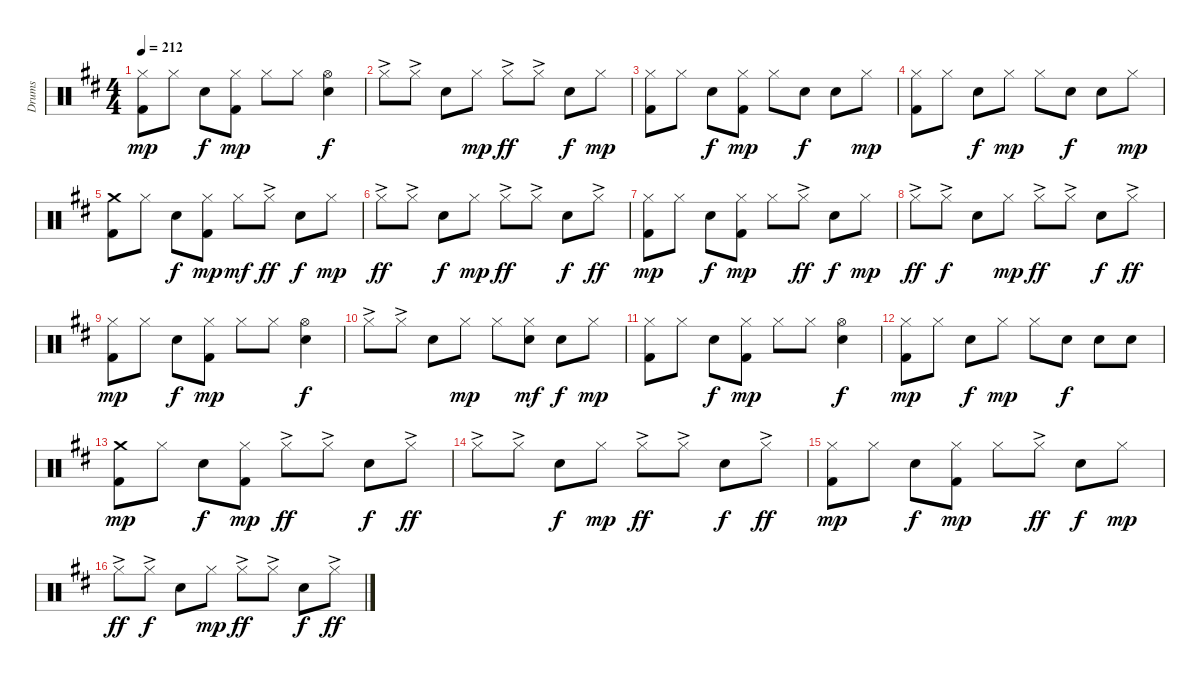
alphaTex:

\track ("Drums" "Drums") {instrument percussion}
\staff {score}
\articulation defaults
\ts (4 4)
\tempo 212
\clef neutral
\ks d
("Hi-Hat (closed)" "Kick (hit) 2").8{dy mp} "Hi-Hat (closed)".8 "Electric Snare (hit)".8{dy f} ("Hi-Hat (closed)" "Kick (hit) 2").8{dy mp} "Hi-Hat (closed)".8 "Hi-Hat (closed)".8 ("Hi-Hat (open)" "Electric Snare (hit)").4{dy f} |
"Hi-Hat (closed)"{ac}.8 "Hi-Hat (closed)"{ac}.8 "Electric Snare (hit)".8 "Hi-Hat (closed)".8{dy mp} "Hi-Hat (closed)"{ac}.8{dy ff} "Hi-Hat (closed)"{ac}.8 "Electric Snare (hit)".8{dy f} "Hi-Hat (closed)".8{dy mp} |
("Hi-Hat (closed)" "Kick (hit) 2").8 "Hi-Hat (closed)".8 "Electric Snare (hit)".8{dy f} ("Hi-Hat (closed)" "Kick (hit) 2").8{dy mp} "Hi-Hat (closed)".8 "Electric Snare (hit)".8{dy f} "Electric Snare (hit)".8 "Hi-Hat (closed)".8{dy mp} |
("Hi-Hat (closed)" "Kick (hit) 2").8 "Hi-Hat (closed)".8 "Electric Snare (hit)".8{dy f} "Hi-Hat (closed)".8{dy mp} "Hi-Hat (closed)".8 "Electric Snare (hit)".8{dy f} "Electric Snare (hit)".8 "Hi-Hat (closed)".8{dy mp} |
("Crash medium (hit)" "Kick (hit) 2").8 "Hi-Hat (closed)".8 "Electric Snare (hit)".8{dy f} ("Hi-Hat (closed)" "Kick (hit) 2").8{dy mp} "Hi-Hat (closed)".8{dy mf} "Hi-Hat (closed)"{ac}.8{dy ff} "Electric Snare (hit)".8{dy f} "Hi-Hat (closed)".8{dy mp} |
"Hi-Hat (closed)"{ac}.8{dy ff} "Hi-Hat (closed)"{ac}.8 "Electric Snare (hit)".8{dy f} "Hi-Hat (closed)".8{dy mp} "Hi-Hat (closed)"{ac}.8{dy ff} "Hi-Hat (closed)"{ac}.8 "Electric Snare (hit)".8{dy f} "Hi-Hat (closed)"{ac}.8{dy ff} |
("Hi-Hat (closed)" "Kick (hit) 2").8{dy mp} "Hi-Hat (closed)".8 "Electric Snare (hit)".8{dy f} ("Hi-Hat (closed)" "Kick (hit) 2").8{dy mp} "Hi-Hat (closed)".8 "Hi-Hat (closed)"{ac}.8{dy ff} "Electric Snare (hit)".8{dy f} "Hi-Hat (closed)".8{dy mp} |
"Hi-Hat (closed)"{ac}.8{dy ff} "Hi-Hat (closed)"{ac}.8{dy f} "Electric Snare (hit)".8 "Hi-Hat (closed)".8{dy mp} "Hi-Hat (closed)"{ac}.8{dy ff} "Hi-Hat (closed)"{ac}.8 "Electric Snare (hit)".8{dy f} "Hi-Hat (closed)"{ac}.8{dy ff} |
("Hi-Hat (closed)" "Kick (hit) 2").8{dy mp} "Hi-Hat (closed)".8 "Electric Snare (hit)".8{dy f} ("Hi-Hat (closed)" "Kick (hit) 2").8{dy mp} "Hi-Hat (closed)".8 "Hi-Hat (closed)".8 ("Hi-Hat (open)" "Electric Snare (hit)").4{dy f} |
"Hi-Hat (closed)"{ac}.8 "Hi-Hat (closed)"{ac}.8 "Electric Snare (hit)".8 "Hi-Hat (closed)".8{dy mp} "Hi-Hat (closed)".8 ("Hi-Hat (closed)" "Electric Snare (hit)").8{dy mf} "Electric Snare (hit)".8{dy f} "Hi-Hat (closed)".8{dy mp} |
("Hi-Hat (closed)" "Kick (hit) 2").8 "Hi-Hat (closed)".8 "Electric Snare (hit)".8{dy f} ("Hi-Hat (closed)" "Kick (hit) 2").8{dy mp} "Hi-Hat (closed)".8 "Hi-Hat (closed)".8 ("Hi-Hat (open)" "Electric Snare (hit)").4{dy f} |
("Hi-Hat (closed)" "Kick (hit) 2").8{dy mp} "Hi-Hat (closed)".8 "Electric Snare (hit)".8{dy f} "Hi-Hat (closed)".8{dy mp} "Hi-Hat (closed)".8 "Electric Snare (hit)".8{dy f} "Electric Snare (hit)".8 "Electric Snare (hit)".8 |
("Crash medium (hit)" "Kick (hit) 2").8{dy mp} "Hi-Hat (closed)".8 "Electric Snare (hit)".8{dy f} ("Hi-Hat (closed)" "Kick (hit) 2").8{dy mp} "Hi-Hat (closed)"{ac}.8{dy ff} "Hi-Hat (closed)"{ac}.8 "Electric Snare (hit)".8{dy f} "Hi-Hat (closed)"{ac}.8{dy ff} |
"Hi-Hat (closed)"{ac}.8 "Hi-Hat (closed)"{ac}.8 "Electric Snare (hit)".8{dy f} "Hi-Hat (closed)".8{dy mp} "Hi-Hat (closed)"{ac}.8{dy ff} "Hi-Hat (closed)"{ac}.8 "Electric Snare (hit)".8{dy f} "Hi-Hat (closed)"{ac}.8{dy ff} |
("Hi-Hat (closed)" "Kick (hit) 2").8{dy mp} "Hi-Hat (closed)".8 "Electric Snare (hit)".8{dy f} ("Hi-Hat (closed)" "Kick (hit) 2").8{dy mp} "Hi-Hat (closed)".8 "Hi-Hat (closed)"{ac}.8{dy ff} "Electric Snare (hit)".8{dy f} "Hi-Hat (closed)".8{dy mp} |
"Hi-Hat (closed)"{ac}.8{dy ff} "Hi-Hat (closed)"{ac}.8{dy f} "Electric Snare (hit)".8 "Hi-Hat (closed)".8{dy mp} "Hi-Hat (closed)"{ac}.8{dy ff} "Hi-Hat (closed)"{ac}.8 "Electric Snare (hit)".8{dy f} "Hi-Hat (closed)"{ac}.8{dy ff}
